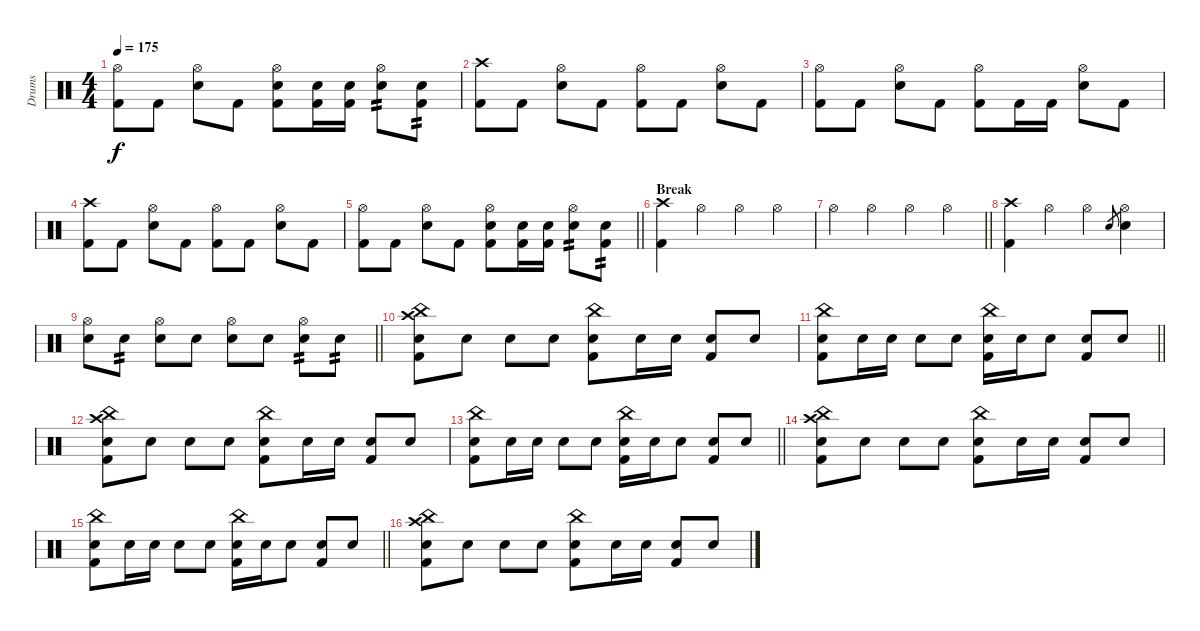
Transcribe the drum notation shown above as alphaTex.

\track ("Drums" "Drums") {instrument percussion}
\staff {score}
\articulation defaults
\ts (4 4)
\tempo 175
\clef neutral
\ks c
("Hi-Hat (open)" "Kick (hit) 2").8{dy f} "Kick (hit) 2".8 ("Hi-Hat (open)" "Snare (hit) 2").8 "Kick (hit) 2".8 ("Hi-Hat (open)" "Snare (hit) 2" "Kick (hit) 2").8 ("Snare (hit) 2" "Kick (hit) 2").16 ("Snare (hit) 2" "Kick (hit) 2").16 ("Hi-Hat (open)" "Snare (hit) 2").8{tp 2} ("Snare (hit) 2" "Kick (hit) 2").8{tp 2} |
("Crash high (hit)" "Kick (hit) 2").8 "Kick (hit) 2".8 ("Hi-Hat (open)" "Snare (hit) 2").8 "Kick (hit) 2".8 ("Hi-Hat (open)" "Kick (hit) 2").8 "Kick (hit) 2".8 ("Hi-Hat (open)" "Snare (hit) 2").8 "Kick (hit) 2".8 |
("Hi-Hat (open)" "Kick (hit) 2").8 "Kick (hit) 2".8 ("Hi-Hat (open)" "Snare (hit) 2").8 "Kick (hit) 2".8 ("Hi-Hat (open)" "Kick (hit) 2").8 "Kick (hit) 2".16 "Kick (hit) 2".16 ("Hi-Hat (open)" "Snare (hit) 2").8 "Kick (hit) 2".8 |
("Crash high (hit)" "Kick (hit) 2").8 "Kick (hit) 2".8 ("Hi-Hat (open)" "Snare (hit) 2").8 "Kick (hit) 2".8 ("Hi-Hat (open)" "Kick (hit) 2").8 "Kick (hit) 2".8 ("Hi-Hat (open)" "Snare (hit) 2").8 "Kick (hit) 2".8 |
\barLineRight lightlight
("Hi-Hat (open)" "Kick (hit) 2").8 "Kick (hit) 2".8 ("Hi-Hat (open)" "Snare (hit) 2").8 "Kick (hit) 2".8 ("Hi-Hat (open)" "Snare (hit) 2" "Kick (hit) 2").8 ("Snare (hit) 2" "Kick (hit) 2").16 ("Snare (hit) 2" "Kick (hit) 2").16 ("Hi-Hat (open)" "Snare (hit) 2").8{tp 2} ("Snare (hit) 2" "Kick (hit) 2").8{tp 2} |
\section ("" "Break")
("Crash high (hit)" "Kick (hit) 2").4 "Hi-Hat (open)".4 "Hi-Hat (open)".4 "Hi-Hat (open)".4 |
\barLineRight lightlight "Hi-Hat (open)".4 "Hi-Hat (open)".4 "Hi-Hat (open)".4 "Hi-Hat (open)".4
|
("Crash high (hit)" "Kick (hit) 2").4 "Hi-Hat (open)".4 "Hi-Hat (open)".4 "Snare (hit) 2".8{gr} ("Hi-Hat (open)" "Snare (hit) 2").4 |
\barLineRight lightlight
("Hi-Hat (open)" "Snare (hit) 2").8 "Snare (hit) 2".8{tp 2} ("Hi-Hat (open)" "Snare (hit) 2").8 "Snare (hit) 2".8 ("Hi-Hat (open)" "Snare (hit) 2").8 "Snare (hit) 2".8 ("Hi-Hat (open)" "Snare (hit) 2").8{tp 2} "Snare (hit) 2".8{tp 2} |
("Crash high (hit)" "China (hit)" "Snare (hit) 2" "Kick (hit) 2").8 "Snare (hit) 2".8 "Snare (hit) 2".8 "Snare (hit) 2".8 ("China (hit)" "Snare (hit) 2" "Kick (hit) 2").8 "Snare (hit) 2".16 "Snare (hit) 2".16 ("Snare (hit) 2" "Kick (hit) 2").8 "Snare (hit) 2".8 |
\barLineRight lightlight
("China (hit)" "Snare (hit) 2" "Kick (hit) 2").8 "Snare (hit) 2".16 "Snare (hit) 2".16 "Snare (hit) 2".8 "Snare (hit) 2".8 ("China (hit)" "Snare (hit) 2" "Kick (hit) 2").16 "Snare (hit) 2".16 "Snare (hit) 2".8 ("Snare (hit) 2" "Kick (hit) 2").8 "Snare (hit) 2".8 |
("Crash high (hit)" "China (hit)" "Snare (hit) 2" "Kick (hit) 2").8 "Snare (hit) 2".8 "Snare (hit) 2".8 "Snare (hit) 2".8 ("China (hit)" "Snare (hit) 2" "Kick (hit) 2").8 "Snare (hit) 2".16 "Snare (hit) 2".16 ("Snare (hit) 2" "Kick (hit) 2").8 "Snare (hit) 2".8 |
\barLineRight lightlight
("China (hit)" "Snare (hit) 2" "Kick (hit) 2").8 "Snare (hit) 2".16 "Snare (hit) 2".16 "Snare (hit) 2".8 "Snare (hit) 2".8 ("China (hit)" "Snare (hit) 2" "Kick (hit) 2").16 "Snare (hit) 2".16 "Snare (hit) 2".8 ("Snare (hit) 2" "Kick (hit) 2").8 "Snare (hit) 2".8 |
("Crash high (hit)" "China (hit)" "Snare (hit) 2" "Kick (hit) 2").8 "Snare (hit) 2".8 "Snare (hit) 2".8 "Snare (hit) 2".8 ("China (hit)" "Snare (hit) 2" "Kick (hit) 2").8 "Snare (hit) 2".16 "Snare (hit) 2".16 ("Snare (hit) 2" "Kick (hit) 2").8 "Snare (hit) 2".8 |
\barLineRight lightlight
("China (hit)" "Snare (hit) 2" "Kick (hit) 2").8 "Snare (hit) 2".16 "Snare (hit) 2".16 "Snare (hit) 2".8 "Snare (hit) 2".8 ("China (hit)" "Snare (hit) 2" "Kick (hit) 2").16 "Snare (hit) 2".16 "Snare (hit) 2".8 ("Snare (hit) 2" "Kick (hit) 2").8 "Snare (hit) 2".8 |
("Crash high (hit)" "China (hit)" "Snare (hit) 2" "Kick (hit) 2").8 "Snare (hit) 2".8 "Snare (hit) 2".8 "Snare (hit) 2".8 ("China (hit)" "Snare (hit) 2" "Kick (hit) 2").8 "Snare (hit) 2".16 "Snare (hit) 2".16 ("Snare (hit) 2" "Kick (hit) 2").8 "Snare (hit) 2".8
